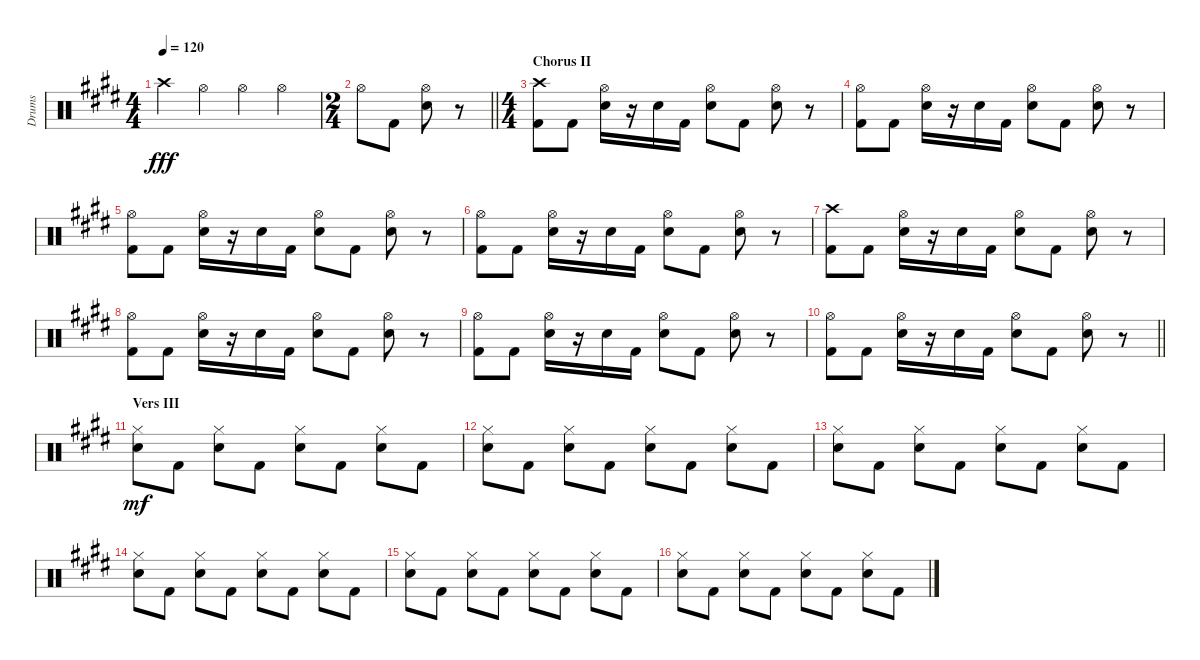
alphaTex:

\track ("Drums" "Drums") {instrument percussion}
\staff {score}
\articulation defaults
\ts (4 4)
\tempo 120
\clef neutral
\ks e "Crash high (hit)".4{dy fff} "Hi-Hat (open)".4 "Hi-Hat (open)".4 "Hi-Hat (open)".4
|
\ts (2 4)
\barLineRight lightlight "Hi-Hat (open)".8 "Kick (hit) 2".8
("Hi-Hat (open)" "Snare (hit) 2").8 r.8 |
\ts (4 4)
\section ("" "Chorus II")
("Crash high (hit)" "Kick (hit) 2").8 "Kick (hit) 2".8 ("Hi-Hat (open)" "Snare (hit) 2").16 r.16 "Snare (hit) 2".16 "Kick (hit) 2".16 ("Hi-Hat (open)" "Snare (hit) 2").8 "Kick (hit) 2".8 ("Hi-Hat (open)" "Snare (hit) 2").8 r.8 |
("Hi-Hat (open)" "Kick (hit) 2").8 "Kick (hit) 2".8 ("Hi-Hat (open)" "Snare (hit) 2").16 r.16 "Snare (hit) 2".16 "Kick (hit) 2".16 ("Hi-Hat (open)" "Snare (hit) 2").8 "Kick (hit) 2".8 ("Hi-Hat (open)" "Snare (hit) 2").8 r.8 |
("Hi-Hat (open)" "Kick (hit) 2").8 "Kick (hit) 2".8 ("Hi-Hat (open)" "Snare (hit) 2").16 r.16 "Snare (hit) 2".16 "Kick (hit) 2".16 ("Hi-Hat (open)" "Snare (hit) 2").8 "Kick (hit) 2".8 ("Hi-Hat (open)" "Snare (hit) 2").8 r.8 |
("Hi-Hat (open)" "Kick (hit) 2").8 "Kick (hit) 2".8 ("Hi-Hat (open)" "Snare (hit) 2").16 r.16 "Snare (hit) 2".16 "Kick (hit) 2".16 ("Hi-Hat (open)" "Snare (hit) 2").8 "Kick (hit) 2".8 ("Hi-Hat (open)" "Snare (hit) 2").8 r.8 |
("Crash high (hit)" "Kick (hit) 2").8 "Kick (hit) 2".8 ("Hi-Hat (open)" "Snare (hit) 2").16 r.16 "Snare (hit) 2".16 "Kick (hit) 2".16 ("Hi-Hat (open)" "Snare (hit) 2").8 "Kick (hit) 2".8 ("Hi-Hat (open)" "Snare (hit) 2").8 r.8 |
("Hi-Hat (open)" "Kick (hit) 2").8 "Kick (hit) 2".8 ("Hi-Hat (open)" "Snare (hit) 2").16 r.16 "Snare (hit) 2".16 "Kick (hit) 2".16 ("Hi-Hat (open)" "Snare (hit) 2").8 "Kick (hit) 2".8 ("Hi-Hat (open)" "Snare (hit) 2").8 r.8 |
("Hi-Hat (open)" "Kick (hit) 2").8 "Kick (hit) 2".8 ("Hi-Hat (open)" "Snare (hit) 2").16 r.16 "Snare (hit) 2".16 "Kick (hit) 2".16 ("Hi-Hat (open)" "Snare (hit) 2").8 "Kick (hit) 2".8 ("Hi-Hat (open)" "Snare (hit) 2").8 r.8 |
\barLineRight lightlight
("Hi-Hat (open)" "Kick (hit) 2").8 "Kick (hit) 2".8 ("Hi-Hat (open)" "Snare (hit) 2").16 r.16 "Snare (hit) 2".16 "Kick (hit) 2".16 ("Hi-Hat (open)" "Snare (hit) 2").8 "Kick (hit) 2".8 ("Hi-Hat (open)" "Snare (hit) 2").8 r.8 |
\section ("" "Vers III")
("Hi-Hat (closed)" "Snare (hit) 2").8{dy mf} "Kick (hit) 2".8 ("Hi-Hat (closed)" "Snare (hit) 2").8 "Kick (hit) 2".8 ("Hi-Hat (closed)" "Snare (hit) 2").8 "Kick (hit) 2".8 ("Hi-Hat (closed)" "Snare (hit) 2").8 "Kick (hit) 2".8 |
("Hi-Hat (closed)" "Snare (hit) 2").8 "Kick (hit) 2".8 ("Hi-Hat (closed)" "Snare (hit) 2").8 "Kick (hit) 2".8 ("Hi-Hat (closed)" "Snare (hit) 2").8 "Kick (hit) 2".8 ("Hi-Hat (closed)" "Snare (hit) 2").8 "Kick (hit) 2".8 |
("Hi-Hat (closed)" "Snare (hit) 2").8 "Kick (hit) 2".8 ("Hi-Hat (closed)" "Snare (hit) 2").8 "Kick (hit) 2".8 ("Hi-Hat (closed)" "Snare (hit) 2").8 "Kick (hit) 2".8 ("Hi-Hat (closed)" "Snare (hit) 2").8 "Kick (hit) 2".8 |
("Hi-Hat (closed)" "Snare (hit) 2").8 "Kick (hit) 2".8 ("Hi-Hat (closed)" "Snare (hit) 2").8 "Kick (hit) 2".8 ("Hi-Hat (closed)" "Snare (hit) 2").8 "Kick (hit) 2".8 ("Hi-Hat (closed)" "Snare (hit) 2").8 "Kick (hit) 2".8 |
("Hi-Hat (closed)" "Snare (hit) 2").8 "Kick (hit) 2".8 ("Hi-Hat (closed)" "Snare (hit) 2").8 "Kick (hit) 2".8 ("Hi-Hat (closed)" "Snare (hit) 2").8 "Kick (hit) 2".8 ("Hi-Hat (closed)" "Snare (hit) 2").8 "Kick (hit) 2".8 |
("Hi-Hat (closed)" "Snare (hit) 2").8 "Kick (hit) 2".8 ("Hi-Hat (closed)" "Snare (hit) 2").8 "Kick (hit) 2".8 ("Hi-Hat (closed)" "Snare (hit) 2").8 "Kick (hit) 2".8 ("Hi-Hat (closed)" "Snare (hit) 2").8 "Kick (hit) 2".8
